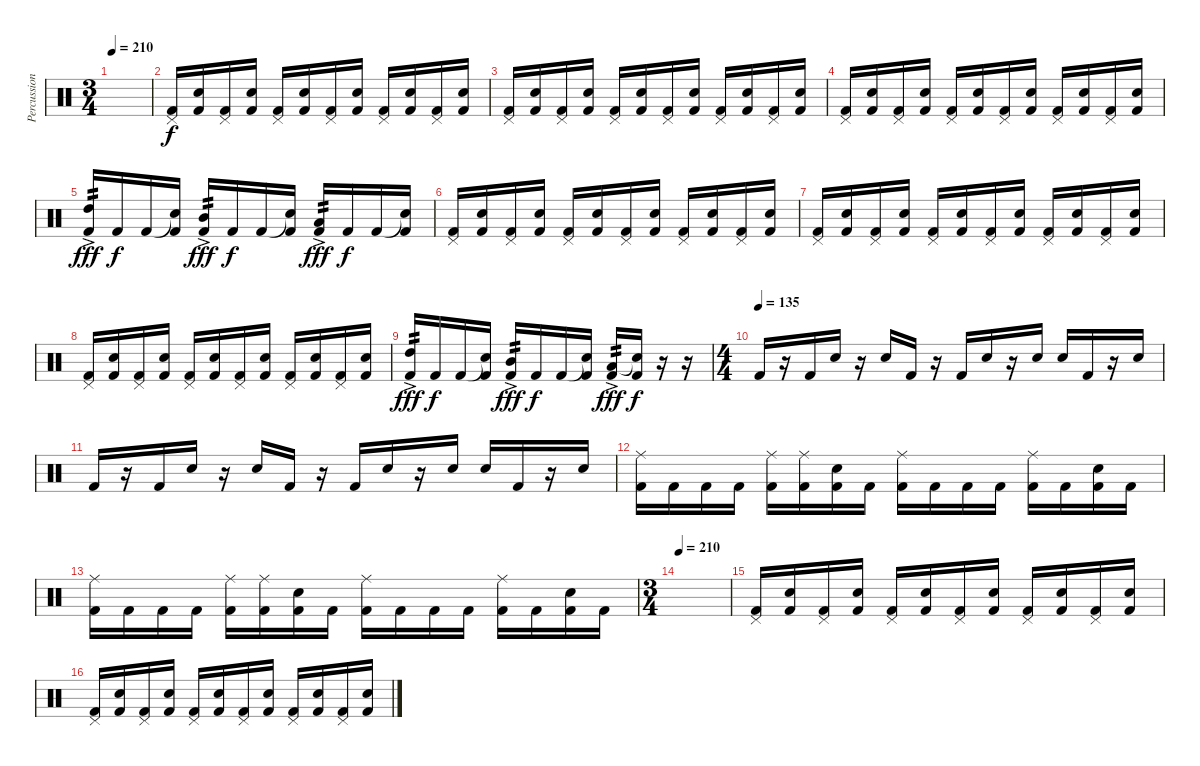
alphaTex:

\track ("Percussions" "Percussion") {instrument percussion}
\staff {score}
\articulation defaults
\ts (3 4)
\tempo 210
\clef neutral
\ks c
|
("Pedal Hi-Hat (hit)" "Kick (hit) 2").16 ("Snare (hit) 2" "Kick (hit) 2").16 ("Pedal Hi-Hat (hit)" "Kick (hit) 2").16 ("Snare (hit) 2" "Kick (hit) 2").16 ("Pedal Hi-Hat (hit)" "Kick (hit) 2").16 ("Snare (hit) 2" "Kick (hit) 2").16 ("Pedal Hi-Hat (hit)" "Kick (hit) 2").16 ("Snare (hit) 2" "Kick (hit) 2").16 ("Pedal Hi-Hat (hit)" "Kick (hit) 2").16 ("Snare (hit) 2" "Kick (hit) 2").16 ("Pedal Hi-Hat (hit)" "Kick (hit) 2").16 ("Snare (hit) 2" "Kick (hit) 2").16 |
("Pedal Hi-Hat (hit)" "Kick (hit) 2").16 ("Snare (hit) 2" "Kick (hit) 2").16 ("Pedal Hi-Hat (hit)" "Kick (hit) 2").16 ("Snare (hit) 2" "Kick (hit) 2").16 ("Pedal Hi-Hat (hit)" "Kick (hit) 2").16 ("Snare (hit) 2" "Kick (hit) 2").16 ("Pedal Hi-Hat (hit)" "Kick (hit) 2").16 ("Snare (hit) 2" "Kick (hit) 2").16 ("Pedal Hi-Hat (hit)" "Kick (hit) 2").16 ("Snare (hit) 2" "Kick (hit) 2").16 ("Pedal Hi-Hat (hit)" "Kick (hit) 2").16 ("Snare (hit) 2" "Kick (hit) 2").16 |
("Pedal Hi-Hat (hit)" "Kick (hit) 2").16 ("Snare (hit) 2" "Kick (hit) 2").16 ("Pedal Hi-Hat (hit)" "Kick (hit) 2").16 ("Snare (hit) 2" "Kick (hit) 2").16 ("Pedal Hi-Hat (hit)" "Kick (hit) 2").16 ("Snare (hit) 2" "Kick (hit) 2").16 ("Pedal Hi-Hat (hit)" "Kick (hit) 2").16 ("Snare (hit) 2" "Kick (hit) 2").16 ("Pedal Hi-Hat (hit)" "Kick (hit) 2").16 ("Snare (hit) 2" "Kick (hit) 2").16 ("Pedal Hi-Hat (hit)" "Kick (hit) 2").16 ("Snare (hit) 2" "Kick (hit) 2").16 |
("High Tom (hit)"{ac} "Kick (hit) 2").16{tp 2 dy fff} "Kick (hit) 2".16{dy f} "Kick (hit) 2".16 ("Snare (hit) 2"{t} "Kick (hit) 2").16 ("Mid Tom (hit)"{ac} "Kick (hit) 2").16{tp 2 dy fff} "Kick (hit) 2".16{dy f} "Kick (hit) 2".16 ("Snare (hit) 2"{t} "Kick (hit) 2").16 ("Low Tom (hit)"{ac} "Kick (hit) 2").16{tp 2 dy fff} "Kick (hit) 2".16{dy f} "Kick (hit) 2".16 ("Snare (hit) 2"{t} "Kick (hit) 2").16 |
("Pedal Hi-Hat (hit)" "Kick (hit) 2").16 ("Snare (hit) 2" "Kick (hit) 2").16 ("Pedal Hi-Hat (hit)" "Kick (hit) 2").16 ("Snare (hit) 2" "Kick (hit) 2").16 ("Pedal Hi-Hat (hit)" "Kick (hit) 2").16 ("Snare (hit) 2" "Kick (hit) 2").16 ("Pedal Hi-Hat (hit)" "Kick (hit) 2").16 ("Snare (hit) 2" "Kick (hit) 2").16 ("Pedal Hi-Hat (hit)" "Kick (hit) 2").16 ("Snare (hit) 2" "Kick (hit) 2").16 ("Pedal Hi-Hat (hit)" "Kick (hit) 2").16 ("Snare (hit) 2" "Kick (hit) 2").16 |
("Pedal Hi-Hat (hit)" "Kick (hit) 2").16 ("Snare (hit) 2" "Kick (hit) 2").16 ("Pedal Hi-Hat (hit)" "Kick (hit) 2").16 ("Snare (hit) 2" "Kick (hit) 2").16 ("Pedal Hi-Hat (hit)" "Kick (hit) 2").16 ("Snare (hit) 2" "Kick (hit) 2").16 ("Pedal Hi-Hat (hit)" "Kick (hit) 2").16 ("Snare (hit) 2" "Kick (hit) 2").16 ("Pedal Hi-Hat (hit)" "Kick (hit) 2").16 ("Snare (hit) 2" "Kick (hit) 2").16 ("Pedal Hi-Hat (hit)" "Kick (hit) 2").16 ("Snare (hit) 2" "Kick (hit) 2").16 |
("Pedal Hi-Hat (hit)" "Kick (hit) 2").16 ("Snare (hit) 2" "Kick (hit) 2").16 ("Pedal Hi-Hat (hit)" "Kick (hit) 2").16 ("Snare (hit) 2" "Kick (hit) 2").16 ("Pedal Hi-Hat (hit)" "Kick (hit) 2").16 ("Snare (hit) 2" "Kick (hit) 2").16 ("Pedal Hi-Hat (hit)" "Kick (hit) 2").16 ("Snare (hit) 2" "Kick (hit) 2").16 ("Pedal Hi-Hat (hit)" "Kick (hit) 2").16 ("Snare (hit) 2" "Kick (hit) 2").16 ("Pedal Hi-Hat (hit)" "Kick (hit) 2").16 ("Snare (hit) 2" "Kick (hit) 2").16 |
("High Tom (hit)"{ac} "Kick (hit) 2").16{tp 2 dy fff} "Kick (hit) 2".16{dy f} "Kick (hit) 2".16 ("Snare (hit) 2"{t} "Kick (hit) 2").16 ("Mid Tom (hit)"{ac} "Kick (hit) 2").16{tp 2 dy fff} "Kick (hit) 2".16{dy f} "Kick (hit) 2".16 ("Snare (hit) 2"{t} "Kick (hit) 2").16 ("Low Tom (hit)"{ac} "Kick (hit) 2").16{tp 2 dy fff} ("Snare (hit)"{t} "Kick (hit) 2").16{dy f} r.16 r.16 |
\ts (4 4)
\tempo (135)
"Kick (hit) 2".16 r.16 "Kick (hit) 2".16 "Snare (hit) 2".16 r.16 "Snare (hit) 2".16 "Kick (hit) 2".16 r.16 "Kick (hit) 2".16 "Snare (hit) 2".16 r.16 "Snare (hit) 2".16 "Snare (hit) 2".16 "Kick (hit) 2".16 r.16 "Snare (hit) 2".16 |
"Kick (hit) 2".16 r.16 "Kick (hit) 2".16 "Snare (hit) 2".16 r.16 "Snare (hit) 2".16 "Kick (hit) 2".16 r.16 "Kick (hit) 2".16 "Snare (hit) 2".16 r.16 "Snare (hit) 2".16 "Snare (hit) 2".16 "Kick (hit) 2".16 r.16 "Snare (hit) 2".16 |
("Ride (middle)" "Kick (hit) 2").16 "Kick (hit) 2".16 "Kick (hit) 2".16 "Kick (hit) 2".16 ("Ride (middle)" "Kick (hit) 2").16 ("Ride (middle)" "Kick (hit) 2").16 ("Snare (hit) 2" "Kick (hit) 2").16 "Kick (hit) 2".16 ("Ride (middle)" "Kick (hit) 2").16 "Kick (hit) 2".16 "Kick (hit) 2".16 "Kick (hit) 2".16 ("Ride (middle)" "Kick (hit) 2").16 "Kick (hit) 2".16 ("Snare (hit) 2" "Kick (hit) 2").16 "Kick (hit) 2".16 |
("Ride (middle)" "Kick (hit) 2").16 "Kick (hit) 2".16 "Kick (hit) 2".16 "Kick (hit) 2".16 ("Ride (middle)" "Kick (hit) 2").16 ("Ride (middle)" "Kick (hit) 2").16 ("Snare (hit) 2" "Kick (hit) 2").16 "Kick (hit) 2".16 ("Ride (middle)" "Kick (hit) 2").16 "Kick (hit) 2".16 "Kick (hit) 2".16 "Kick (hit) 2".16 ("Ride (middle)" "Kick (hit) 2").16 "Kick (hit) 2".16 ("Snare (hit) 2" "Kick (hit) 2").16 "Kick (hit) 2".16 |
\ts (3 4)
\tempo 210
|
("Pedal Hi-Hat (hit)" "Kick (hit) 2").16 ("Snare (hit) 2" "Kick (hit) 2").16 ("Pedal Hi-Hat (hit)" "Kick (hit) 2").16 ("Snare (hit) 2" "Kick (hit) 2").16 ("Pedal Hi-Hat (hit)" "Kick (hit) 2").16 ("Snare (hit) 2" "Kick (hit) 2").16 ("Pedal Hi-Hat (hit)" "Kick (hit) 2").16 ("Snare (hit) 2" "Kick (hit) 2").16 ("Pedal Hi-Hat (hit)" "Kick (hit) 2").16 ("Snare (hit) 2" "Kick (hit) 2").16 ("Pedal Hi-Hat (hit)" "Kick (hit) 2").16 ("Snare (hit) 2" "Kick (hit) 2").16 |
("Pedal Hi-Hat (hit)" "Kick (hit) 2").16 ("Snare (hit) 2" "Kick (hit) 2").16 ("Pedal Hi-Hat (hit)" "Kick (hit) 2").16 ("Snare (hit) 2" "Kick (hit) 2").16 ("Pedal Hi-Hat (hit)" "Kick (hit) 2").16 ("Snare (hit) 2" "Kick (hit) 2").16 ("Pedal Hi-Hat (hit)" "Kick (hit) 2").16 ("Snare (hit) 2" "Kick (hit) 2").16 ("Pedal Hi-Hat (hit)" "Kick (hit) 2").16 ("Snare (hit) 2" "Kick (hit) 2").16 ("Pedal Hi-Hat (hit)" "Kick (hit) 2").16 ("Snare (hit) 2" "Kick (hit) 2").16
